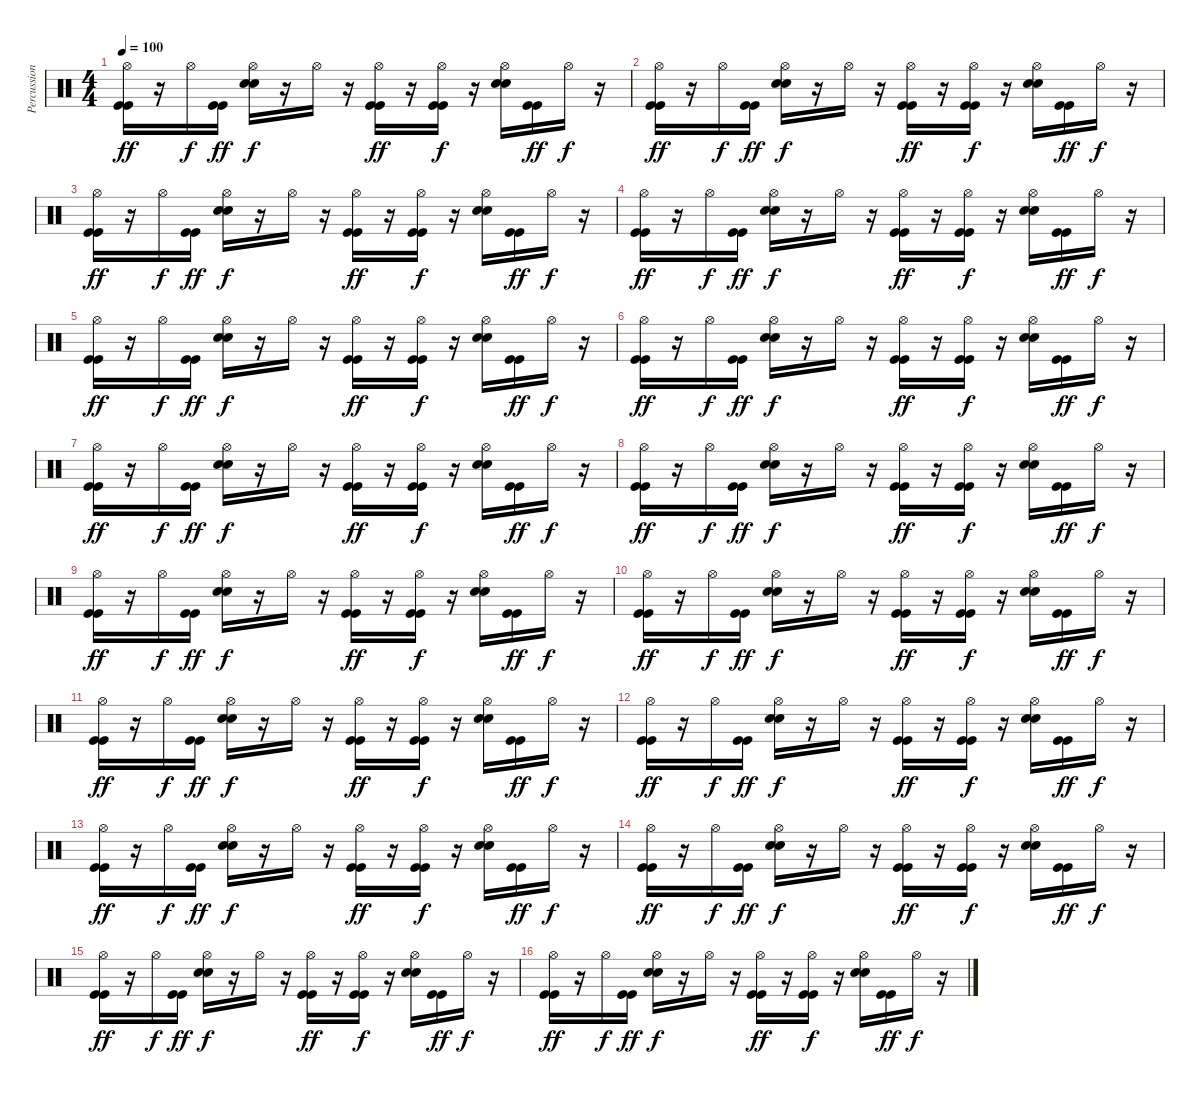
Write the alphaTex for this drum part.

\track ("Percussions" "Percussion") {instrument percussion}
\staff
\articulation defaults
\ts (4 4)
\tempo 100
\clef neutral
\ks c
("Hi-Hat (open)" "Kick (hit)" "Kick (hit)").16{dy ff} r.16 "Hi-Hat (open)".16{dy f} ("Kick (hit)" "Kick (hit)").16{dy ff} ("Hi-Hat (open)" "Electric Snare (hit)" "Electric Snare (hit)").16{dy f} r.16 "Hi-Hat (open)".16 r.16 ("Hi-Hat (open)" "Kick (hit)" "Kick (hit)").16{dy ff} r.16 ("Hi-Hat (open)" "Kick (hit)" "Kick (hit)").16{dy f} r.16 ("Hi-Hat (open)" "Electric Snare (hit)" "Electric Snare (hit)").16 ("Kick (hit)" "Kick (hit)").16{dy ff} "Hi-Hat (open)".16{dy f} r.16 |
("Hi-Hat (open)" "Kick (hit)" "Kick (hit)").16{dy ff} r.16 "Hi-Hat (open)".16{dy f} ("Kick (hit)" "Kick (hit)").16{dy ff} ("Hi-Hat (open)" "Electric Snare (hit)" "Electric Snare (hit)").16{dy f} r.16 "Hi-Hat (open)".16 r.16 ("Hi-Hat (open)" "Kick (hit)" "Kick (hit)").16{dy ff} r.16 ("Hi-Hat (open)" "Kick (hit)" "Kick (hit)").16{dy f} r.16 ("Hi-Hat (open)" "Electric Snare (hit)" "Electric Snare (hit)").16 ("Kick (hit)" "Kick (hit)").16{dy ff} "Hi-Hat (open)".16{dy f} r.16 |
("Hi-Hat (open)" "Kick (hit)" "Kick (hit)").16{dy ff} r.16 "Hi-Hat (open)".16{dy f} ("Kick (hit)" "Kick (hit)").16{dy ff} ("Hi-Hat (open)" "Electric Snare (hit)" "Electric Snare (hit)").16{dy f} r.16 "Hi-Hat (open)".16 r.16 ("Hi-Hat (open)" "Kick (hit)" "Kick (hit)").16{dy ff} r.16 ("Hi-Hat (open)" "Kick (hit)" "Kick (hit)").16{dy f} r.16 ("Hi-Hat (open)" "Electric Snare (hit)" "Electric Snare (hit)").16 ("Kick (hit)" "Kick (hit)").16{dy ff} "Hi-Hat (open)".16{dy f} r.16 |
("Hi-Hat (open)" "Kick (hit)" "Kick (hit)").16{dy ff} r.16 "Hi-Hat (open)".16{dy f} ("Kick (hit)" "Kick (hit)").16{dy ff} ("Hi-Hat (open)" "Electric Snare (hit)" "Electric Snare (hit)").16{dy f} r.16 "Hi-Hat (open)".16 r.16 ("Hi-Hat (open)" "Kick (hit)" "Kick (hit)").16{dy ff} r.16 ("Hi-Hat (open)" "Kick (hit)" "Kick (hit)").16{dy f} r.16 ("Hi-Hat (open)" "Electric Snare (hit)" "Electric Snare (hit)").16 ("Kick (hit)" "Kick (hit)").16{dy ff} "Hi-Hat (open)".16{dy f} r.16 |
("Hi-Hat (open)" "Kick (hit)" "Kick (hit)").16{dy ff} r.16 "Hi-Hat (open)".16{dy f} ("Kick (hit)" "Kick (hit)").16{dy ff} ("Hi-Hat (open)" "Electric Snare (hit)" "Electric Snare (hit)").16{dy f} r.16 "Hi-Hat (open)".16 r.16 ("Hi-Hat (open)" "Kick (hit)" "Kick (hit)").16{dy ff} r.16 ("Hi-Hat (open)" "Kick (hit)" "Kick (hit)").16{dy f} r.16 ("Hi-Hat (open)" "Electric Snare (hit)" "Electric Snare (hit)").16 ("Kick (hit)" "Kick (hit)").16{dy ff} "Hi-Hat (open)".16{dy f} r.16 |
("Hi-Hat (open)" "Kick (hit)" "Kick (hit)").16{dy ff} r.16 "Hi-Hat (open)".16{dy f} ("Kick (hit)" "Kick (hit)").16{dy ff} ("Hi-Hat (open)" "Electric Snare (hit)" "Electric Snare (hit)").16{dy f} r.16 "Hi-Hat (open)".16 r.16 ("Hi-Hat (open)" "Kick (hit)" "Kick (hit)").16{dy ff} r.16 ("Hi-Hat (open)" "Kick (hit)" "Kick (hit)").16{dy f} r.16 ("Hi-Hat (open)" "Electric Snare (hit)" "Electric Snare (hit)").16 ("Kick (hit)" "Kick (hit)").16{dy ff} "Hi-Hat (open)".16{dy f} r.16 |
("Hi-Hat (open)" "Kick (hit)" "Kick (hit)").16{dy ff} r.16 "Hi-Hat (open)".16{dy f} ("Kick (hit)" "Kick (hit)").16{dy ff} ("Hi-Hat (open)" "Electric Snare (hit)" "Electric Snare (hit)").16{dy f} r.16 "Hi-Hat (open)".16 r.16 ("Hi-Hat (open)" "Kick (hit)" "Kick (hit)").16{dy ff} r.16 ("Hi-Hat (open)" "Kick (hit)" "Kick (hit)").16{dy f} r.16 ("Hi-Hat (open)" "Electric Snare (hit)" "Electric Snare (hit)").16 ("Kick (hit)" "Kick (hit)").16{dy ff} "Hi-Hat (open)".16{dy f} r.16 |
("Hi-Hat (open)" "Kick (hit)" "Kick (hit)").16{dy ff} r.16 "Hi-Hat (open)".16{dy f} ("Kick (hit)" "Kick (hit)").16{dy ff} ("Hi-Hat (open)" "Electric Snare (hit)" "Electric Snare (hit)").16{dy f} r.16 "Hi-Hat (open)".16 r.16 ("Hi-Hat (open)" "Kick (hit)" "Kick (hit)").16{dy ff} r.16 ("Hi-Hat (open)" "Kick (hit)" "Kick (hit)").16{dy f} r.16 ("Hi-Hat (open)" "Electric Snare (hit)" "Electric Snare (hit)").16 ("Kick (hit)" "Kick (hit)").16{dy ff} "Hi-Hat (open)".16{dy f} r.16 |
("Hi-Hat (open)" "Kick (hit)" "Kick (hit)").16{dy ff} r.16 "Hi-Hat (open)".16{dy f} ("Kick (hit)" "Kick (hit)").16{dy ff} ("Hi-Hat (open)" "Electric Snare (hit)" "Electric Snare (hit)").16{dy f} r.16 "Hi-Hat (open)".16 r.16 ("Hi-Hat (open)" "Kick (hit)" "Kick (hit)").16{dy ff} r.16 ("Hi-Hat (open)" "Kick (hit)" "Kick (hit)").16{dy f} r.16 ("Hi-Hat (open)" "Electric Snare (hit)" "Electric Snare (hit)").16 ("Kick (hit)" "Kick (hit)").16{dy ff} "Hi-Hat (open)".16{dy f} r.16 |
("Hi-Hat (open)" "Kick (hit)" "Kick (hit)").16{dy ff} r.16 "Hi-Hat (open)".16{dy f} ("Kick (hit)" "Kick (hit)").16{dy ff} ("Hi-Hat (open)" "Electric Snare (hit)" "Electric Snare (hit)").16{dy f} r.16 "Hi-Hat (open)".16 r.16 ("Hi-Hat (open)" "Kick (hit)" "Kick (hit)").16{dy ff} r.16 ("Hi-Hat (open)" "Kick (hit)" "Kick (hit)").16{dy f} r.16 ("Hi-Hat (open)" "Electric Snare (hit)" "Electric Snare (hit)").16 ("Kick (hit)" "Kick (hit)").16{dy ff} "Hi-Hat (open)".16{dy f} r.16 |
("Hi-Hat (open)" "Kick (hit)" "Kick (hit)").16{dy ff} r.16 "Hi-Hat (open)".16{dy f} ("Kick (hit)" "Kick (hit)").16{dy ff} ("Hi-Hat (open)" "Electric Snare (hit)" "Electric Snare (hit)").16{dy f} r.16 "Hi-Hat (open)".16 r.16 ("Hi-Hat (open)" "Kick (hit)" "Kick (hit)").16{dy ff} r.16 ("Hi-Hat (open)" "Kick (hit)" "Kick (hit)").16{dy f} r.16 ("Hi-Hat (open)" "Electric Snare (hit)" "Electric Snare (hit)").16 ("Kick (hit)" "Kick (hit)").16{dy ff} "Hi-Hat (open)".16{dy f} r.16 |
("Hi-Hat (open)" "Kick (hit)" "Kick (hit)").16{dy ff} r.16 "Hi-Hat (open)".16{dy f} ("Kick (hit)" "Kick (hit)").16{dy ff} ("Hi-Hat (open)" "Electric Snare (hit)" "Electric Snare (hit)").16{dy f} r.16 "Hi-Hat (open)".16 r.16 ("Hi-Hat (open)" "Kick (hit)" "Kick (hit)").16{dy ff} r.16 ("Hi-Hat (open)" "Kick (hit)" "Kick (hit)").16{dy f} r.16 ("Hi-Hat (open)" "Electric Snare (hit)" "Electric Snare (hit)").16 ("Kick (hit)" "Kick (hit)").16{dy ff} "Hi-Hat (open)".16{dy f} r.16 |
("Hi-Hat (open)" "Kick (hit)" "Kick (hit)").16{dy ff} r.16 "Hi-Hat (open)".16{dy f} ("Kick (hit)" "Kick (hit)").16{dy ff} ("Hi-Hat (open)" "Electric Snare (hit)" "Electric Snare (hit)").16{dy f} r.16 "Hi-Hat (open)".16 r.16 ("Hi-Hat (open)" "Kick (hit)" "Kick (hit)").16{dy ff} r.16 ("Hi-Hat (open)" "Kick (hit)" "Kick (hit)").16{dy f} r.16 ("Hi-Hat (open)" "Electric Snare (hit)" "Electric Snare (hit)").16 ("Kick (hit)" "Kick (hit)").16{dy ff} "Hi-Hat (open)".16{dy f} r.16 |
("Hi-Hat (open)" "Kick (hit)" "Kick (hit)").16{dy ff} r.16 "Hi-Hat (open)".16{dy f} ("Kick (hit)" "Kick (hit)").16{dy ff} ("Hi-Hat (open)" "Electric Snare (hit)" "Electric Snare (hit)").16{dy f} r.16 "Hi-Hat (open)".16 r.16 ("Hi-Hat (open)" "Kick (hit)" "Kick (hit)").16{dy ff} r.16 ("Hi-Hat (open)" "Kick (hit)" "Kick (hit)").16{dy f} r.16 ("Hi-Hat (open)" "Electric Snare (hit)" "Electric Snare (hit)").16 ("Kick (hit)" "Kick (hit)").16{dy ff} "Hi-Hat (open)".16{dy f} r.16 |
("Hi-Hat (open)" "Kick (hit)" "Kick (hit)").16{dy ff} r.16 "Hi-Hat (open)".16{dy f} ("Kick (hit)" "Kick (hit)").16{dy ff} ("Hi-Hat (open)" "Electric Snare (hit)" "Electric Snare (hit)").16{dy f} r.16 "Hi-Hat (open)".16 r.16 ("Hi-Hat (open)" "Kick (hit)" "Kick (hit)").16{dy ff} r.16 ("Hi-Hat (open)" "Kick (hit)" "Kick (hit)").16{dy f} r.16 ("Hi-Hat (open)" "Electric Snare (hit)" "Electric Snare (hit)").16 ("Kick (hit)" "Kick (hit)").16{dy ff} "Hi-Hat (open)".16{dy f} r.16 |
("Hi-Hat (open)" "Kick (hit)" "Kick (hit)").16{dy ff} r.16 "Hi-Hat (open)".16{dy f} ("Kick (hit)" "Kick (hit)").16{dy ff} ("Hi-Hat (open)" "Electric Snare (hit)" "Electric Snare (hit)").16{dy f} r.16 "Hi-Hat (open)".16 r.16 ("Hi-Hat (open)" "Kick (hit)" "Kick (hit)").16{dy ff} r.16 ("Hi-Hat (open)" "Kick (hit)" "Kick (hit)").16{dy f} r.16 ("Hi-Hat (open)" "Electric Snare (hit)" "Electric Snare (hit)").16 ("Kick (hit)" "Kick (hit)").16{dy ff} "Hi-Hat (open)".16{dy f} r.16
